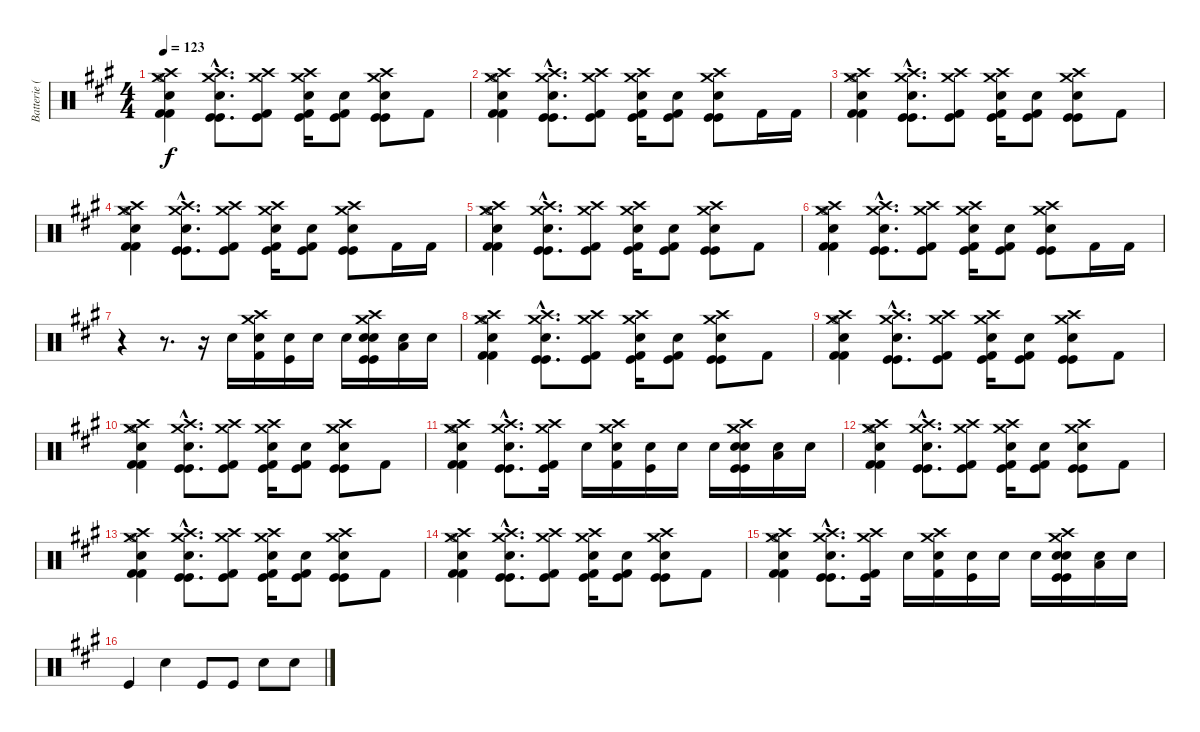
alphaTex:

\track ("Batterie (Dominic Howard)" "Batterie (") {instrument percussion}
\staff {score}
\articulation defaults
\ts (4 4)
\tempo 123
\clef neutral
\ks a
("Crash medium (hit)" "Crash high (hit)" "Hi-Hat (open)" "Snare (hit) 2" "Kick (hit) 2" "Kick (hit) 2").4{dy f} ("Crash medium (hit)"{hac} "Crash high (hit)"{hac} "Electric Snare (hit)"{hac} "Kick (hit)"{hac} "Kick (hit)"{hac}).8{d} ("Crash medium (hit)" "Crash high (hit)" "Kick (hit)" "Kick (hit) 2").8 ("Crash medium (hit)" "Crash high (hit)" "Snare (hit) 2" "Kick (hit)" "Kick (hit) 2").16 ("Snare (hit) 2" "Kick (hit) 2" "Kick (hit)").8 ("Crash medium (hit)" "Crash high (hit)" "Electric Snare (hit)" "Kick (hit)" "Kick (hit)").8 "Kick (hit) 2".8 |
("Crash medium (hit)" "Crash high (hit)" "Hi-Hat (open)" "Snare (hit) 2" "Kick (hit) 2" "Kick (hit) 2").4 ("Crash medium (hit)"{hac} "Crash high (hit)"{hac} "Electric Snare (hit)"{hac} "Kick (hit)"{hac} "Kick (hit)"{hac}).8{d} ("Crash medium (hit)" "Crash high (hit)" "Kick (hit)" "Kick (hit) 2").8 ("Crash medium (hit)" "Crash high (hit)" "Snare (hit) 2" "Kick (hit)" "Kick (hit) 2").16 ("Snare (hit) 2" "Kick (hit) 2" "Kick (hit)").8 ("Crash medium (hit)" "Crash high (hit)" "Electric Snare (hit)" "Kick (hit)" "Kick (hit)").8 "Kick (hit) 2".16 "Kick (hit) 2".16 |
("Crash medium (hit)" "Crash high (hit)" "Hi-Hat (open)" "Snare (hit) 2" "Kick (hit) 2" "Kick (hit) 2").4 ("Crash medium (hit)"{hac} "Crash high (hit)"{hac} "Electric Snare (hit)"{hac} "Kick (hit)"{hac} "Kick (hit)"{hac}).8{d} ("Crash medium (hit)" "Crash high (hit)" "Kick (hit)" "Kick (hit) 2").8 ("Crash medium (hit)" "Crash high (hit)" "Snare (hit) 2" "Kick (hit)" "Kick (hit) 2").16 ("Snare (hit) 2" "Kick (hit) 2" "Kick (hit)").8 ("Crash medium (hit)" "Crash high (hit)" "Electric Snare (hit)" "Kick (hit)" "Kick (hit)").8 "Kick (hit) 2".8 |
("Crash medium (hit)" "Crash high (hit)" "Hi-Hat (open)" "Snare (hit) 2" "Kick (hit) 2" "Kick (hit) 2").4 ("Crash medium (hit)"{hac} "Crash high (hit)"{hac} "Electric Snare (hit)"{hac} "Kick (hit)"{hac} "Kick (hit)"{hac}).8{d} ("Crash medium (hit)" "Crash high (hit)" "Kick (hit)" "Kick (hit) 2").8 ("Crash medium (hit)" "Crash high (hit)" "Snare (hit) 2" "Kick (hit)" "Kick (hit) 2").16 ("Snare (hit) 2" "Kick (hit) 2" "Kick (hit)").8 ("Crash medium (hit)" "Crash high (hit)" "Electric Snare (hit)" "Kick (hit)" "Kick (hit)").8 "Kick (hit) 2".16 "Kick (hit) 2".16 |
("Crash medium (hit)" "Crash high (hit)" "Hi-Hat (open)" "Snare (hit) 2" "Kick (hit) 2" "Kick (hit) 2").4 ("Crash medium (hit)"{hac} "Crash high (hit)"{hac} "Electric Snare (hit)"{hac} "Kick (hit)"{hac} "Kick (hit)"{hac}).8{d} ("Crash medium (hit)" "Crash high (hit)" "Kick (hit)" "Kick (hit) 2").8 ("Crash medium (hit)" "Crash high (hit)" "Snare (hit) 2" "Kick (hit)" "Kick (hit) 2").16 ("Snare (hit) 2" "Kick (hit) 2" "Kick (hit)").8 ("Crash medium (hit)" "Crash high (hit)" "Electric Snare (hit)" "Kick (hit)" "Kick (hit)").8 "Kick (hit) 2".8 |
("Crash medium (hit)" "Crash high (hit)" "Hi-Hat (open)" "Snare (hit) 2" "Kick (hit) 2" "Kick (hit) 2").4 ("Crash medium (hit)"{hac} "Crash high (hit)"{hac} "Electric Snare (hit)"{hac} "Kick (hit)"{hac} "Kick (hit)"{hac}).8{d} ("Crash medium (hit)" "Crash high (hit)" "Kick (hit)" "Kick (hit) 2").8 ("Crash medium (hit)" "Crash high (hit)" "Snare (hit) 2" "Kick (hit)" "Kick (hit) 2").16 ("Snare (hit) 2" "Kick (hit) 2" "Kick (hit)").8 ("Crash medium (hit)" "Crash high (hit)" "Electric Snare (hit)" "Kick (hit)" "Kick (hit)").8 "Kick (hit) 2".16 "Kick (hit) 2".16 |
r.4 r.8{d} r.16 "Electric Snare (hit)".16 ("Crash medium (hit)" "Crash high (hit)" "Electric Snare (hit)" "Kick (hit) 2").16 ("Electric Snare (hit)" "Kick (hit)").16 "Electric Snare (hit)".16 "Electric Snare (hit)".16 ("Crash medium (hit)" "Crash high (hit)" "Electric Snare (hit)" "Electric Snare (hit)" "Kick (hit)" "Kick (hit)").16 ("Electric Snare (hit)" "Low Floor Tom (hit)").16 "Electric Snare (hit)".16 |
("Crash medium (hit)" "Crash high (hit)" "Hi-Hat (open)" "Snare (hit) 2" "Kick (hit) 2" "Kick (hit) 2").4 ("Crash medium (hit)"{hac} "Crash high (hit)"{hac} "Electric Snare (hit)"{hac} "Kick (hit)"{hac} "Kick (hit)"{hac}).8{d} ("Crash medium (hit)" "Crash high (hit)" "Kick (hit)" "Kick (hit) 2").8 ("Crash medium (hit)" "Crash high (hit)" "Snare (hit) 2" "Kick (hit)" "Kick (hit) 2").16 ("Snare (hit) 2" "Kick (hit) 2" "Kick (hit)").8 ("Crash medium (hit)" "Crash high (hit)" "Electric Snare (hit)" "Kick (hit)" "Kick (hit)").8 "Kick (hit) 2".8 |
("Crash medium (hit)" "Crash high (hit)" "Hi-Hat (open)" "Snare (hit) 2" "Kick (hit) 2" "Kick (hit) 2").4 ("Crash medium (hit)"{hac} "Crash high (hit)"{hac} "Electric Snare (hit)"{hac} "Kick (hit)"{hac} "Kick (hit)"{hac}).8{d} ("Crash medium (hit)" "Crash high (hit)" "Kick (hit)" "Kick (hit) 2").8 ("Crash medium (hit)" "Crash high (hit)" "Snare (hit) 2" "Kick (hit)" "Kick (hit) 2").16 ("Snare (hit) 2" "Kick (hit) 2" "Kick (hit)").8 ("Crash medium (hit)" "Crash high (hit)" "Electric Snare (hit)" "Kick (hit)" "Kick (hit)").8 "Kick (hit) 2".8 |
("Crash medium (hit)" "Crash high (hit)" "Hi-Hat (open)" "Snare (hit) 2" "Kick (hit) 2" "Kick (hit) 2").4 ("Crash medium (hit)"{hac} "Crash high (hit)"{hac} "Electric Snare (hit)"{hac} "Kick (hit)"{hac} "Kick (hit)"{hac}).8{d} ("Crash medium (hit)" "Crash high (hit)" "Kick (hit)" "Kick (hit) 2").8 ("Crash medium (hit)" "Crash high (hit)" "Snare (hit) 2" "Kick (hit)" "Kick (hit) 2").16 ("Snare (hit) 2" "Kick (hit) 2" "Kick (hit)").8 ("Crash medium (hit)" "Crash high (hit)" "Electric Snare (hit)" "Kick (hit)" "Kick (hit)").8 "Kick (hit) 2".8 |
("Crash medium (hit)" "Crash high (hit)" "Hi-Hat (open)" "Snare (hit) 2" "Kick (hit) 2" "Kick (hit) 2").4 ("Crash medium (hit)"{hac} "Crash high (hit)"{hac} "Electric Snare (hit)"{hac} "Kick (hit)"{hac} "Kick (hit)"{hac}).8{d} ("Crash medium (hit)" "Crash high (hit)" "Kick (hit)" "Kick (hit) 2").16 "Electric Snare (hit)".16 ("Crash medium (hit)" "Crash high (hit)" "Electric Snare (hit)" "Kick (hit) 2").16 ("Electric Snare (hit)" "Kick (hit)").16 "Electric Snare (hit)".16 "Electric Snare (hit)".16 ("Crash medium (hit)" "Crash high (hit)" "Electric Snare (hit)" "Electric Snare (hit)" "Kick (hit)" "Kick (hit)").16 ("Electric Snare (hit)" "Low Floor Tom (hit)").16 "Electric Snare (hit)".16 |
("Crash medium (hit)" "Crash high (hit)" "Hi-Hat (open)" "Snare (hit) 2" "Kick (hit) 2" "Kick (hit) 2").4 ("Crash medium (hit)"{hac} "Crash high (hit)"{hac} "Electric Snare (hit)"{hac} "Kick (hit)"{hac} "Kick (hit)"{hac}).8{d} ("Crash medium (hit)" "Crash high (hit)" "Kick (hit)" "Kick (hit) 2").8 ("Crash medium (hit)" "Crash high (hit)" "Snare (hit) 2" "Kick (hit)" "Kick (hit) 2").16 ("Snare (hit) 2" "Kick (hit) 2" "Kick (hit)").8 ("Crash medium (hit)" "Crash high (hit)" "Electric Snare (hit)" "Kick (hit)" "Kick (hit)").8 "Kick (hit) 2".8 |
("Crash medium (hit)" "Crash high (hit)" "Hi-Hat (open)" "Snare (hit) 2" "Kick (hit) 2" "Kick (hit) 2").4 ("Crash medium (hit)"{hac} "Crash high (hit)"{hac} "Electric Snare (hit)"{hac} "Kick (hit)"{hac} "Kick (hit)"{hac}).8{d} ("Crash medium (hit)" "Crash high (hit)" "Kick (hit)" "Kick (hit) 2").8 ("Crash medium (hit)" "Crash high (hit)" "Snare (hit) 2" "Kick (hit)" "Kick (hit) 2").16 ("Snare (hit) 2" "Kick (hit) 2" "Kick (hit)").8 ("Crash medium (hit)" "Crash high (hit)" "Electric Snare (hit)" "Kick (hit)" "Kick (hit)").8 "Kick (hit) 2".8 |
("Crash medium (hit)" "Crash high (hit)" "Hi-Hat (open)" "Snare (hit) 2" "Kick (hit) 2" "Kick (hit) 2").4 ("Crash medium (hit)"{hac} "Crash high (hit)"{hac} "Electric Snare (hit)"{hac} "Kick (hit)"{hac} "Kick (hit)"{hac}).8{d} ("Crash medium (hit)" "Crash high (hit)" "Kick (hit)" "Kick (hit) 2").8 ("Crash medium (hit)" "Crash high (hit)" "Snare (hit) 2" "Kick (hit)" "Kick (hit) 2").16 ("Snare (hit) 2" "Kick (hit) 2" "Kick (hit)").8 ("Crash medium (hit)" "Crash high (hit)" "Electric Snare (hit)" "Kick (hit)" "Kick (hit)").8 "Kick (hit) 2".8 |
("Crash medium (hit)" "Crash high (hit)" "Hi-Hat (open)" "Snare (hit) 2" "Kick (hit) 2" "Kick (hit) 2").4 ("Crash medium (hit)"{hac} "Crash high (hit)"{hac} "Electric Snare (hit)"{hac} "Kick (hit)"{hac} "Kick (hit)"{hac}).8{d} ("Crash medium (hit)" "Crash high (hit)" "Kick (hit)" "Kick (hit) 2").16 "Electric Snare (hit)".16 ("Crash medium (hit)" "Crash high (hit)" "Electric Snare (hit)" "Kick (hit) 2").16 ("Electric Snare (hit)" "Kick (hit)").16 "Electric Snare (hit)".16 "Electric Snare (hit)".16 ("Crash medium (hit)" "Crash high (hit)" "Electric Snare (hit)" "Electric Snare (hit)" "Kick (hit)" "Kick (hit)").16 ("Electric Snare (hit)" "Low Floor Tom (hit)").16 "Electric Snare (hit)".16 |
"Kick (hit)".4 "Electric Snare (hit)".4 "Kick (hit)".8 "Kick (hit)".8 "Electric Snare (hit)".8 "Electric Snare (hit)".8
